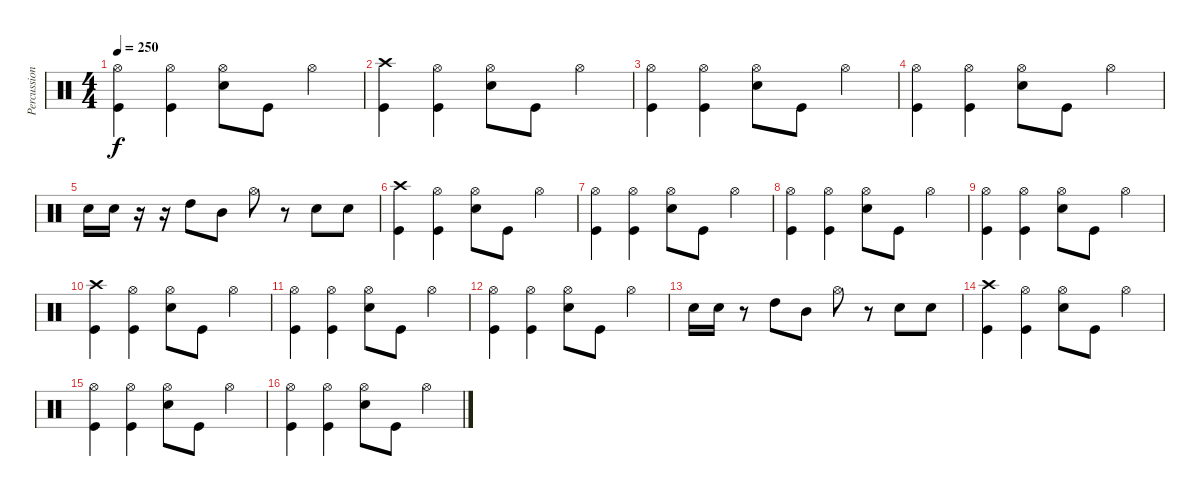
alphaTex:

\track ("Percussion" "Percussion") {instrument percussion}
\staff {score}
\articulation defaults
\ts (4 4)
\tempo 250
\clef neutral
\ks c
("Hi-Hat (open)" "Kick (hit)").4{dy f} ("Hi-Hat (open)" "Kick (hit)").4 ("Hi-Hat (open)" "Snare (hit) 2").8 "Kick (hit)".8 "Hi-Hat (open)".4 |
("Crash high (hit)" "Kick (hit)").4 ("Hi-Hat (open)" "Kick (hit)").4 ("Hi-Hat (open)" "Snare (hit) 2").8 "Kick (hit)".8 "Hi-Hat (open)".4 |
("Hi-Hat (open)" "Kick (hit)").4 ("Hi-Hat (open)" "Kick (hit)").4 ("Hi-Hat (open)" "Snare (hit) 2").8 "Kick (hit)".8 "Hi-Hat (open)".4 |
("Hi-Hat (open)" "Kick (hit)").4 ("Hi-Hat (open)" "Kick (hit)").4 ("Hi-Hat (open)" "Snare (hit) 2").8 "Kick (hit)".8 "Hi-Hat (open)".4 |
"Snare (hit) 2".16 "Snare (hit) 2".16 r.16 r.16 "High Tom (hit)".8 "Mid Tom (hit)".8 "Hi-Hat (open)".8 r.8 "Snare (hit) 2".8 "Snare (hit) 2".8 |
("Crash high (hit)" "Kick (hit)").4 ("Hi-Hat (open)" "Kick (hit)").4 ("Hi-Hat (open)" "Snare (hit) 2").8 "Kick (hit)".8 "Hi-Hat (open)".4 |
("Hi-Hat (open)" "Kick (hit)").4 ("Hi-Hat (open)" "Kick (hit)").4 ("Hi-Hat (open)" "Snare (hit) 2").8 "Kick (hit)".8 "Hi-Hat (open)".4 |
("Hi-Hat (open)" "Kick (hit)").4 ("Hi-Hat (open)" "Kick (hit)").4 ("Hi-Hat (open)" "Snare (hit) 2").8 "Kick (hit)".8 "Hi-Hat (open)".4 |
("Hi-Hat (open)" "Kick (hit)").4 ("Hi-Hat (open)" "Kick (hit)").4 ("Hi-Hat (open)" "Snare (hit) 2").8 "Kick (hit)".8 "Hi-Hat (open)".4 |
("Crash high (hit)" "Kick (hit)").4 ("Hi-Hat (open)" "Kick (hit)").4 ("Hi-Hat (open)" "Snare (hit) 2").8 "Kick (hit)".8 "Hi-Hat (open)".4 |
("Hi-Hat (open)" "Kick (hit)").4 ("Hi-Hat (open)" "Kick (hit)").4 ("Hi-Hat (open)" "Snare (hit) 2").8 "Kick (hit)".8 "Hi-Hat (open)".4 |
("Hi-Hat (open)" "Kick (hit)").4 ("Hi-Hat (open)" "Kick (hit)").4 ("Hi-Hat (open)" "Snare (hit) 2").8 "Kick (hit)".8 "Hi-Hat (open)".4 |
"Snare (hit) 2".16 "Snare (hit) 2".16 r.8 "High Tom (hit)".8 "Mid Tom (hit)".8 "Hi-Hat (open)".8 r.8 "Snare (hit) 2".8 "Snare (hit) 2".8 |
("Crash high (hit)" "Kick (hit)").4 ("Hi-Hat (open)" "Kick (hit)").4 ("Hi-Hat (open)" "Snare (hit) 2").8 "Kick (hit)".8 "Hi-Hat (open)".4 |
("Hi-Hat (open)" "Kick (hit)").4 ("Hi-Hat (open)" "Kick (hit)").4 ("Hi-Hat (open)" "Snare (hit) 2").8 "Kick (hit)".8 "Hi-Hat (open)".4 |
("Hi-Hat (open)" "Kick (hit)").4 ("Hi-Hat (open)" "Kick (hit)").4 ("Hi-Hat (open)" "Snare (hit) 2").8 "Kick (hit)".8 "Hi-Hat (open)".4
